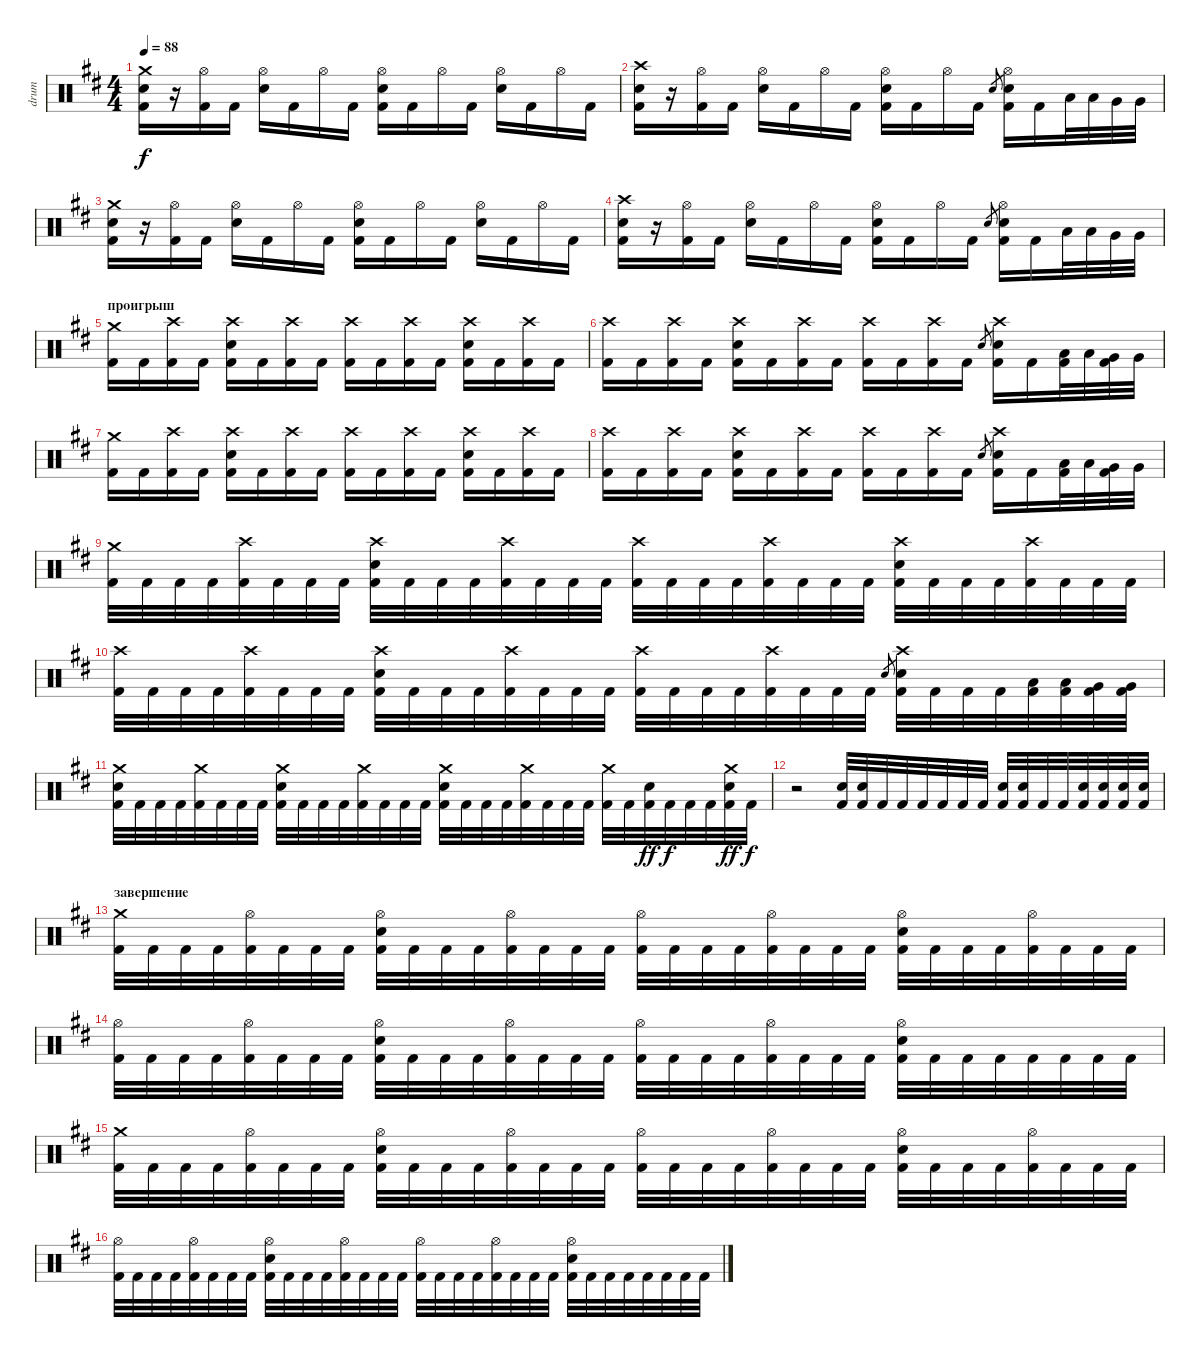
\track ("drum" "drum") {instrument percussion}
\staff {score}
\articulation defaults
\ts (4 4)
\tempo 88
\clef neutral
\ks bminor
("Crash medium (hit)" "Electric Snare (hit)" "Kick (hit) 2").16{dy f} r.16 ("Hi-Hat (open)" "Kick (hit) 2").16 "Kick (hit) 2".16 ("Hi-Hat (open)" "Electric Snare (hit)").16 "Kick (hit) 2".16 "Hi-Hat (open)".16 "Kick (hit) 2".16 ("Hi-Hat (open)" "Electric Snare (hit)" "Kick (hit) 2").16 "Kick (hit) 2".16 "Hi-Hat (open)".16 "Kick (hit) 2".16 ("Hi-Hat (open)" "Electric Snare (hit)").16 "Kick (hit) 2".16 "Hi-Hat (open)".16 "Kick (hit) 2".16 |
("Crash high (hit)" "Electric Snare (hit)" "Kick (hit) 2").16 r.16 ("Hi-Hat (open)" "Kick (hit) 2").16 "Kick (hit) 2".16 ("Hi-Hat (open)" "Electric Snare (hit)").16 "Kick (hit) 2".16 "Hi-Hat (open)".16 "Kick (hit) 2".16 ("Hi-Hat (open)" "Electric Snare (hit)" "Kick (hit) 2").16 "Kick (hit) 2".16 "Hi-Hat (open)".16 "Kick (hit) 2".16 "Electric Snare (hit)".8{gr} ("Hi-Hat (open)" "Electric Snare (hit)" "Kick (hit) 2").16 "Kick (hit) 2".16 "Low Tom (hit)".32 "Low Tom (hit)".32 "Very Low Tom (hit)".32 "Very Low Tom (hit)".32 |
("Crash medium (hit)" "Electric Snare (hit)" "Kick (hit) 2").16 r.16 ("Hi-Hat (open)" "Kick (hit) 2").16 "Kick (hit) 2".16 ("Hi-Hat (open)" "Electric Snare (hit)").16 "Kick (hit) 2".16 "Hi-Hat (open)".16 "Kick (hit) 2".16 ("Hi-Hat (open)" "Electric Snare (hit)" "Kick (hit) 2").16 "Kick (hit) 2".16 "Hi-Hat (open)".16 "Kick (hit) 2".16 ("Hi-Hat (open)" "Electric Snare (hit)").16 "Kick (hit) 2".16 "Hi-Hat (open)".16 "Kick (hit) 2".16 |
("Crash high (hit)" "Electric Snare (hit)" "Kick (hit) 2").16 r.16 ("Hi-Hat (open)" "Kick (hit) 2").16 "Kick (hit) 2".16 ("Hi-Hat (open)" "Electric Snare (hit)").16 "Kick (hit) 2".16 "Hi-Hat (open)".16 "Kick (hit) 2".16 ("Hi-Hat (open)" "Electric Snare (hit)" "Kick (hit) 2").16 "Kick (hit) 2".16 "Hi-Hat (open)".16 "Kick (hit) 2".16 "Electric Snare (hit)".8{gr} ("Hi-Hat (open)" "Electric Snare (hit)" "Kick (hit) 2").16 "Kick (hit) 2".16 "Low Tom (hit)".32 "Low Tom (hit)".32 "Very Low Tom (hit)".32 "Very Low Tom (hit)".32 |
\section ("" "проигрыш")
("Crash medium (hit)" "Kick (hit) 2").16 "Kick (hit) 2".16 ("Crash high (hit)" "Kick (hit) 2").16 "Kick (hit) 2".16 ("Crash high (hit)" "Electric Snare (hit)" "Kick (hit) 2").16 "Kick (hit) 2".16 ("Crash high (hit)" "Kick (hit) 2").16 "Kick (hit) 2".16 ("Crash high (hit)" "Kick (hit) 2").16 "Kick (hit) 2".16 ("Crash high (hit)" "Kick (hit) 2").16 "Kick (hit) 2".16 ("Crash high (hit)" "Electric Snare (hit)" "Kick (hit) 2").16 "Kick (hit) 2".16 ("Crash high (hit)" "Kick (hit) 2").16 "Kick (hit) 2".16 |
("Crash high (hit)" "Kick (hit) 2").16 "Kick (hit) 2".16 ("Crash high (hit)" "Kick (hit) 2").16 "Kick (hit) 2".16 ("Crash high (hit)" "Electric Snare (hit)" "Kick (hit) 2").16 "Kick (hit) 2".16 ("Crash high (hit)" "Kick (hit) 2").16 "Kick (hit) 2".16 ("Crash high (hit)" "Kick (hit) 2").16 "Kick (hit) 2".16 ("Crash high (hit)" "Kick (hit) 2").16 "Kick (hit) 2".16 "Electric Snare (hit)".8{gr} ("Crash high (hit)" "Electric Snare (hit)" "Kick (hit) 2").16 "Kick (hit) 2".16 ("Low Tom (hit)" "Kick (hit) 2").32 "Low Tom (hit)".32 ("Very Low Tom (hit)" "Kick (hit) 2").32 "Very Low Tom (hit)".32 |
("Crash medium (hit)" "Kick (hit) 2").16 "Kick (hit) 2".16 ("Crash high (hit)" "Kick (hit) 2").16 "Kick (hit) 2".16 ("Crash high (hit)" "Electric Snare (hit)" "Kick (hit) 2").16 "Kick (hit) 2".16 ("Crash high (hit)" "Kick (hit) 2").16 "Kick (hit) 2".16 ("Crash high (hit)" "Kick (hit) 2").16 "Kick (hit) 2".16 ("Crash high (hit)" "Kick (hit) 2").16 "Kick (hit) 2".16 ("Crash high (hit)" "Electric Snare (hit)" "Kick (hit) 2").16 "Kick (hit) 2".16 ("Crash high (hit)" "Kick (hit) 2").16 "Kick (hit) 2".16 |
("Crash high (hit)" "Kick (hit) 2").16 "Kick (hit) 2".16 ("Crash high (hit)" "Kick (hit) 2").16 "Kick (hit) 2".16 ("Crash high (hit)" "Electric Snare (hit)" "Kick (hit) 2").16 "Kick (hit) 2".16 ("Crash high (hit)" "Kick (hit) 2").16 "Kick (hit) 2".16 ("Crash high (hit)" "Kick (hit) 2").16 "Kick (hit) 2".16 ("Crash high (hit)" "Kick (hit) 2").16 "Kick (hit) 2".16 "Electric Snare (hit)".8{gr} ("Crash high (hit)" "Electric Snare (hit)" "Kick (hit) 2").16 "Kick (hit) 2".16 ("Low Tom (hit)" "Kick (hit) 2").32 "Low Tom (hit)".32 ("Very Low Tom (hit)" "Kick (hit) 2").32 "Very Low Tom (hit)".32 |
("Crash medium (hit)" "Kick (hit) 2").32 "Kick (hit) 2".32 "Kick (hit) 2".32 "Kick (hit) 2".32 ("Crash high (hit)" "Kick (hit) 2").32 "Kick (hit) 2".32 "Kick (hit) 2".32 "Kick (hit) 2".32 ("Crash high (hit)" "Electric Snare (hit)" "Kick (hit) 2").32 "Kick (hit) 2".32 "Kick (hit) 2".32 "Kick (hit) 2".32 ("Crash high (hit)" "Kick (hit) 2").32 "Kick (hit) 2".32 "Kick (hit) 2".32 "Kick (hit) 2".32 ("Crash high (hit)" "Kick (hit) 2").32 "Kick (hit) 2".32 "Kick (hit) 2".32 "Kick (hit) 2".32 ("Crash high (hit)" "Kick (hit) 2").32 "Kick (hit) 2".32 "Kick (hit) 2".32 "Kick (hit) 2".32 ("Crash high (hit)" "Electric Snare (hit)" "Kick (hit) 2").32 "Kick (hit) 2".32 "Kick (hit) 2".32 "Kick (hit) 2".32 ("Crash high (hit)" "Kick (hit) 2").32 "Kick (hit) 2".32 "Kick (hit) 2".32 "Kick (hit) 2".32 |
("Crash high (hit)" "Kick (hit) 2").32 "Kick (hit) 2".32 "Kick (hit) 2".32 "Kick (hit) 2".32 ("Crash high (hit)" "Kick (hit) 2").32 "Kick (hit) 2".32 "Kick (hit) 2".32 "Kick (hit) 2".32 ("Crash high (hit)" "Electric Snare (hit)" "Kick (hit) 2").32 "Kick (hit) 2".32 "Kick (hit) 2".32 "Kick (hit) 2".32 ("Crash high (hit)" "Kick (hit) 2").32 "Kick (hit) 2".32 "Kick (hit) 2".32 "Kick (hit) 2".32 ("Crash high (hit)" "Kick (hit) 2").32 "Kick (hit) 2".32 "Kick (hit) 2".32 "Kick (hit) 2".32 ("Crash high (hit)" "Kick (hit) 2").32 "Kick (hit) 2".32 "Kick (hit) 2".32 "Kick (hit) 2".32 "Electric Snare (hit)".8{gr} ("Crash high (hit)" "Electric Snare (hit)" "Kick (hit) 2").32 "Kick (hit) 2".32 "Kick (hit) 2".32 "Kick (hit) 2".32 ("Low Tom (hit)" "Kick (hit) 2").32 ("Low Tom (hit)" "Kick (hit) 2").32 ("Very Low Tom (hit)" "Kick (hit) 2").32 ("Very Low Tom (hit)" "Kick (hit) 2").32 |
("Crash medium (hit)" "Electric Snare (hit)" "Kick (hit) 2").32 "Kick (hit) 2".32 "Kick (hit) 2".32 "Kick (hit) 2".32 ("Crash medium (hit)" "Kick (hit) 2").32 "Kick (hit) 2".32 "Kick (hit) 2".32 "Kick (hit) 2".32 ("Crash medium (hit)" "Electric Snare (hit)" "Kick (hit) 2").32 "Kick (hit) 2".32 "Kick (hit) 2".32 "Kick (hit) 2".32 ("Crash medium (hit)" "Kick (hit) 2").32 "Kick (hit) 2".32 "Kick (hit) 2".32 "Kick (hit) 2".32 ("Crash medium (hit)" "Electric Snare (hit)" "Kick (hit) 2").32 "Kick (hit) 2".32 "Kick (hit) 2".32 "Kick (hit) 2".32 ("Crash medium (hit)" "Kick (hit) 2").32 "Kick (hit) 2".32 "Kick (hit) 2".32 "Kick (hit) 2".32 ("Crash medium (hit)" "Kick (hit) 2").32 "Kick (hit) 2".32 ("Electric Snare (hit)" "Kick (hit) 2").32{dy ff} "Kick (hit) 2".32{dy f} "Kick (hit) 2".32 "Kick (hit) 2".32 ("Crash medium (hit)" "Electric Snare (hit)" "Kick (hit) 2").32{dy ff} "Kick (hit) 2".32{dy f} |
r.2 ("Electric Snare (hit)" "Kick (hit) 2").32 ("Electric Snare (hit)" "Kick (hit) 2").32 "Kick (hit) 2".32 "Kick (hit) 2".32 "Kick (hit) 2".32 "Kick (hit) 2".32 "Kick (hit) 2".32 "Kick (hit) 2".32 ("Electric Snare (hit)" "Kick (hit) 2").32 ("Electric Snare (hit)" "Kick (hit) 2").32 "Kick (hit) 2".32 "Kick (hit) 2".32 ("Electric Snare (hit)" "Kick (hit) 2").32 ("Electric Snare (hit)" "Kick (hit) 2").32 ("Electric Snare (hit)" "Kick (hit) 2").32 ("Electric Snare (hit)" "Kick (hit) 2").32 |
\section ("" "завершение")
("Crash medium (hit)" "Kick (hit) 2").32 "Kick (hit) 2".32 "Kick (hit) 2".32 "Kick (hit) 2".32 ("Hi-Hat (open)" "Kick (hit) 2").32 "Kick (hit) 2".32 "Kick (hit) 2".32 "Kick (hit) 2".32 ("Hi-Hat (open)" "Electric Snare (hit)" "Kick (hit) 2").32 "Kick (hit) 2".32 "Kick (hit) 2".32 "Kick (hit) 2".32 ("Hi-Hat (open)" "Kick (hit) 2").32 "Kick (hit) 2".32 "Kick (hit) 2".32 "Kick (hit) 2".32 ("Hi-Hat (open)" "Kick (hit) 2").32 "Kick (hit) 2".32 "Kick (hit) 2".32 "Kick (hit) 2".32 ("Hi-Hat (open)" "Kick (hit) 2").32 "Kick (hit) 2".32 "Kick (hit) 2".32 "Kick (hit) 2".32 ("Hi-Hat (open)" "Electric Snare (hit)" "Kick (hit) 2").32 "Kick (hit) 2".32 "Kick (hit) 2".32 "Kick (hit) 2".32 ("Hi-Hat (open)" "Kick (hit) 2").32 "Kick (hit) 2".32 "Kick (hit) 2".32 "Kick (hit) 2".32 |
("Hi-Hat (open)" "Kick (hit) 2").32 "Kick (hit) 2".32 "Kick (hit) 2".32 "Kick (hit) 2".32 ("Hi-Hat (open)" "Kick (hit) 2").32 "Kick (hit) 2".32 "Kick (hit) 2".32 "Kick (hit) 2".32 ("Hi-Hat (open)" "Electric Snare (hit)" "Kick (hit) 2").32 "Kick (hit) 2".32 "Kick (hit) 2".32 "Kick (hit) 2".32 ("Hi-Hat (open)" "Kick (hit) 2").32 "Kick (hit) 2".32 "Kick (hit) 2".32 "Kick (hit) 2".32 ("Hi-Hat (open)" "Kick (hit) 2").32 "Kick (hit) 2".32 "Kick (hit) 2".32 "Kick (hit) 2".32 ("Hi-Hat (open)" "Kick (hit) 2").32 "Kick (hit) 2".32 "Kick (hit) 2".32 "Kick (hit) 2".32 ("Hi-Hat (open)" "Electric Snare (hit)" "Kick (hit) 2").32 "Kick (hit) 2".32 "Kick (hit) 2".32 "Kick (hit) 2".32 "Kick (hit) 2".32 "Kick (hit) 2".32 "Kick (hit) 2".32 "Kick (hit) 2".32 |
("Crash medium (hit)" "Kick (hit) 2").32 "Kick (hit) 2".32 "Kick (hit) 2".32 "Kick (hit) 2".32 ("Hi-Hat (open)" "Kick (hit) 2").32 "Kick (hit) 2".32 "Kick (hit) 2".32 "Kick (hit) 2".32 ("Hi-Hat (open)" "Electric Snare (hit)" "Kick (hit) 2").32 "Kick (hit) 2".32 "Kick (hit) 2".32 "Kick (hit) 2".32 ("Hi-Hat (open)" "Kick (hit) 2").32 "Kick (hit) 2".32 "Kick (hit) 2".32 "Kick (hit) 2".32 ("Hi-Hat (open)" "Kick (hit) 2").32 "Kick (hit) 2".32 "Kick (hit) 2".32 "Kick (hit) 2".32 ("Hi-Hat (open)" "Kick (hit) 2").32 "Kick (hit) 2".32 "Kick (hit) 2".32 "Kick (hit) 2".32 ("Hi-Hat (open)" "Electric Snare (hit)" "Kick (hit) 2").32 "Kick (hit) 2".32 "Kick (hit) 2".32 "Kick (hit) 2".32 ("Hi-Hat (open)" "Kick (hit) 2").32 "Kick (hit) 2".32 "Kick (hit) 2".32 "Kick (hit) 2".32 |
("Hi-Hat (open)" "Kick (hit) 2").32 "Kick (hit) 2".32 "Kick (hit) 2".32 "Kick (hit) 2".32 ("Hi-Hat (open)" "Kick (hit) 2").32 "Kick (hit) 2".32 "Kick (hit) 2".32 "Kick (hit) 2".32 ("Hi-Hat (open)" "Electric Snare (hit)" "Kick (hit) 2").32 "Kick (hit) 2".32 "Kick (hit) 2".32 "Kick (hit) 2".32 ("Hi-Hat (open)" "Kick (hit) 2").32 "Kick (hit) 2".32 "Kick (hit) 2".32 "Kick (hit) 2".32 ("Hi-Hat (open)" "Kick (hit) 2").32 "Kick (hit) 2".32 "Kick (hit) 2".32 "Kick (hit) 2".32 ("Hi-Hat (open)" "Kick (hit) 2").32 "Kick (hit) 2".32 "Kick (hit) 2".32 "Kick (hit) 2".32 ("Hi-Hat (open)" "Electric Snare (hit)" "Kick (hit) 2").32 "Kick (hit) 2".32 "Kick (hit) 2".32 "Kick (hit) 2".32 "Kick (hit) 2".32 "Kick (hit) 2".32 "Kick (hit) 2".32 "Kick (hit) 2".32
